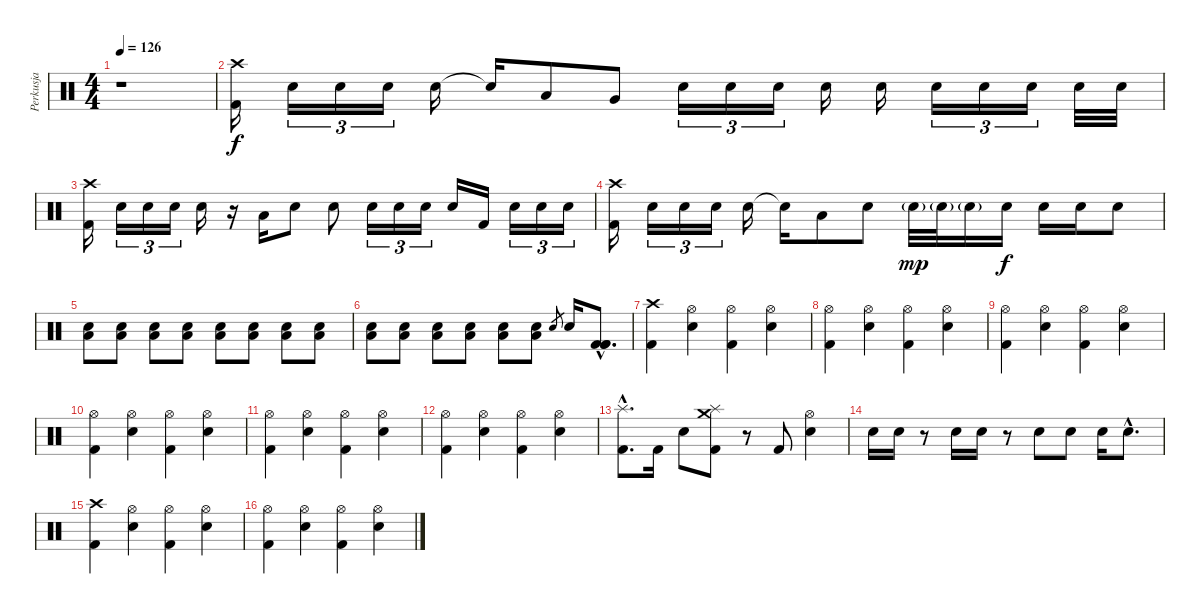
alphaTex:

\track ("Perkusja" "Perkusja") {instrument percussion}
\staff {score}
\articulation defaults
\ts (4 4)
\tempo 126
\clef neutral
\ks c
r.1{dy f} |
("Crash high (hit)" "Kick (hit) 2").16 "Electric Snare (hit)".16{tu (3 2) volume 8} "Electric Snare (hit)".16{tu (3 2)} "Electric Snare (hit)".16{tu (3 2)} "Electric Snare (hit)".16{volume 16} "Electric Snare (hit)"{t}.16 "Low Floor Tom (hit)".8 "Very Low Tom (hit)".8 "Electric Snare (hit)".16{tu (3 2) volume 8} "Electric Snare (hit)".16{tu (3 2)} "Electric Snare (hit)".16{tu (3 2)} "Electric Snare (hit)".16{volume 16} "Electric Snare (hit)".16 "Electric Snare (hit)".16{tu (3 2) volume 8} "Electric Snare (hit)".16{tu (3 2)} "Electric Snare (hit)".16{tu (3 2)} "Electric Snare (hit)".32 "Electric Snare (hit)".32 |
("Crash high (hit)" "Kick (hit) 2").16{volume 16} "Electric Snare (hit)".16{tu (3 2) volume 8} "Electric Snare (hit)".16{tu (3 2)} "Electric Snare (hit)".16{tu (3 2)} "Electric Snare (hit)".16{volume 16} r.16 "Low Floor Tom (hit)".16 "Electric Snare (hit)".8 "Electric Snare (hit)".8 "Electric Snare (hit)".16{tu (3 2) volume 8} "Electric Snare (hit)".16{tu (3 2)} "Electric Snare (hit)".16{tu (3 2)} "Electric Snare (hit)".16{volume 16} "Kick (hit) 2".16 "Electric Snare (hit)".16{tu (3 2) volume 8} "Electric Snare (hit)".16{tu (3 2)} "Electric Snare (hit)".16{tu (3 2)} |
("Crash high (hit)" "Kick (hit) 2").16{volume 16} "Electric Snare (hit)".16{tu (3 2) volume 8} "Electric Snare (hit)".16{tu (3 2)} "Electric Snare (hit)".16{tu (3 2)} "Electric Snare (hit)".16{volume 16} "Snare (hit)"{t}.16 "Low Floor Tom (hit)".8 "Electric Snare (hit)".8 "Electric Snare (hit)"{g}.32{dy mp} "Electric Snare (hit)"{g}.32 "Electric Snare (hit)"{g}.16 "Electric Snare (hit)".16{dy f} "Electric Snare (hit)".16 "Electric Snare (hit)".16 "Electric Snare (hit)".8 |
("Electric Snare (hit)" "Low Floor Tom (hit)").8{volume 4} ("Electric Snare (hit)" "Low Floor Tom (hit)").8 ("Electric Snare (hit)" "Low Floor Tom (hit)").8 ("Electric Snare (hit)" "Low Floor Tom (hit)").8 ("Electric Snare (hit)" "Low Floor Tom (hit)").8{volume 8} ("Electric Snare (hit)" "Low Floor Tom (hit)").8 ("Electric Snare (hit)" "Low Floor Tom (hit)").8 ("Electric Snare (hit)" "Low Floor Tom (hit)").8 |
("Electric Snare (hit)" "Low Floor Tom (hit)").8{volume 12} ("Electric Snare (hit)" "Low Floor Tom (hit)").8 ("Electric Snare (hit)" "Low Floor Tom (hit)").8{volume 16} ("Electric Snare (hit)" "Low Floor Tom (hit)").8 ("Electric Snare (hit)" "Low Floor Tom (hit)").8 ("Electric Snare (hit)" "Low Floor Tom (hit)").8 "Electric Snare (hit)".8{gr} "Electric Snare (hit)".16 ("Kick (hit) 2"{hac} "Kick (hit) 2"{hac} "Kick (hit) 2"{hac}).8{d} |
("Crash high (hit)" "Kick (hit) 2").4 ("Hi-Hat (open)" "Electric Snare (hit)").4 ("Hi-Hat (open)" "Kick (hit) 2").4 ("Hi-Hat (open)" "Electric Snare (hit)").4 |
("Hi-Hat (open)" "Kick (hit) 2").4 ("Hi-Hat (open)" "Electric Snare (hit)").4 ("Hi-Hat (open)" "Kick (hit) 2").4 ("Hi-Hat (open)" "Electric Snare (hit)").4 |
("Hi-Hat (open)" "Kick (hit) 2").4 ("Hi-Hat (open)" "Electric Snare (hit)").4 ("Hi-Hat (open)" "Kick (hit) 2").4 ("Hi-Hat (open)" "Electric Snare (hit)").4 |
("Hi-Hat (open)" "Kick (hit) 2").4 ("Hi-Hat (open)" "Electric Snare (hit)").4 ("Hi-Hat (open)" "Kick (hit) 2").4 ("Hi-Hat (open)" "Electric Snare (hit)").4 |
("Hi-Hat (open)" "Kick (hit) 2").4 ("Hi-Hat (open)" "Electric Snare (hit)").4 ("Hi-Hat (open)" "Kick (hit) 2").4 ("Hi-Hat (open)" "Electric Snare (hit)").4 |
("Hi-Hat (open)" "Kick (hit) 2").4 ("Hi-Hat (open)" "Electric Snare (hit)").4 ("Hi-Hat (open)" "Kick (hit) 2").4 ("Hi-Hat (open)" "Electric Snare (hit)").4 |
("Splash (hit)"{hac} "Kick (hit) 2"{hac}).8{d} "Kick (hit) 2".16 "Electric Snare (hit)".8 ("Crash medium (hit)" "Splash (hit)" "Kick (hit) 2").8 r.8 "Kick (hit) 2".8 ("Hi-Hat (open)" "Electric Snare (hit)").4 |
"Electric Snare (hit)".16 "Electric Snare (hit)".16 r.8 "Electric Snare (hit)".16 "Electric Snare (hit)".16 r.8 "Electric Snare (hit)".8 "Electric Snare (hit)".8 "Electric Snare (hit)".16 "Electric Snare (hit)"{hac}.8{d} |
("Crash high (hit)" "Kick (hit) 2").4 ("Hi-Hat (open)" "Electric Snare (hit)").4 ("Hi-Hat (open)" "Kick (hit) 2").4 ("Hi-Hat (open)" "Electric Snare (hit)").4 |
("Hi-Hat (open)" "Kick (hit) 2").4 ("Hi-Hat (open)" "Electric Snare (hit)").4 ("Hi-Hat (open)" "Kick (hit) 2").4 ("Hi-Hat (open)" "Electric Snare (hit)").4
